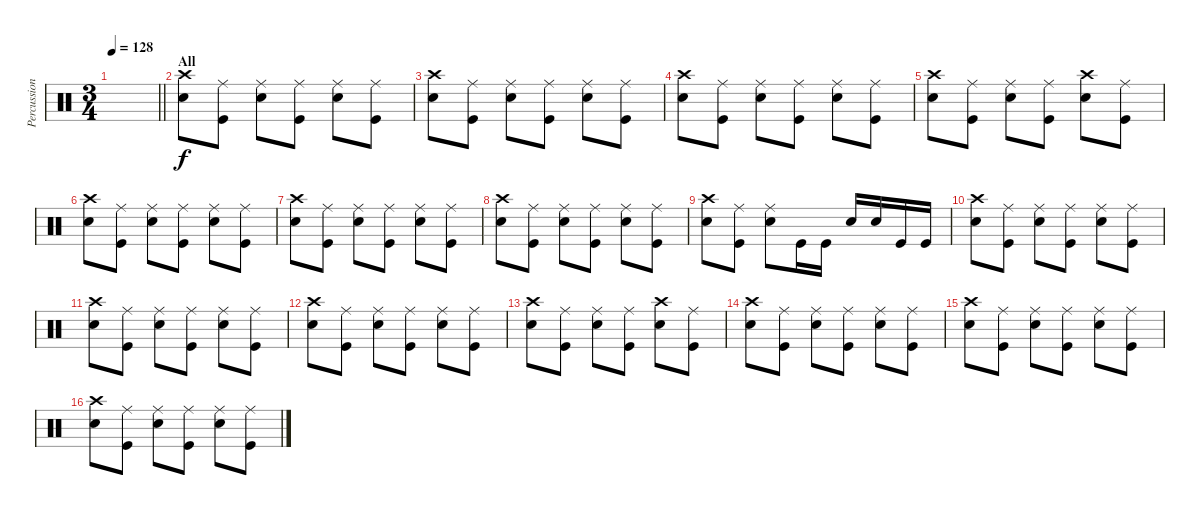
\track ("Percussioni" "Percussion") {instrument percussion}
\staff {score}
\articulation defaults
\ts (3 4)
\tempo 128
\clef neutral
\barLineRight lightlight
\ks c
|
\section ("" "All")
("Crash high (hit)" "Snare (hit) 2").8 ("Ride (middle)" "Kick (hit)").8 ("Ride (middle)" "Snare (hit) 2").8 ("Kick (hit)" "Ride (middle)").8 ("Ride (middle)" "Snare (hit) 2").8 ("Kick (hit)" "Ride (middle)").8 |
("Crash high (hit)" "Snare (hit) 2").8 ("Ride (middle)" "Kick (hit)").8 ("Ride (middle)" "Snare (hit) 2").8 ("Kick (hit)" "Ride (middle)").8 ("Ride (middle)" "Snare (hit) 2").8 ("Kick (hit)" "Ride (middle)").8 |
("Crash high (hit)" "Snare (hit) 2").8 ("Ride (middle)" "Kick (hit)").8 ("Ride (middle)" "Snare (hit) 2").8 ("Kick (hit)" "Ride (middle)").8 ("Ride (middle)" "Snare (hit) 2").8 ("Kick (hit)" "Ride (middle)").8 |
("Crash high (hit)" "Snare (hit) 2").8 ("Ride (middle)" "Kick (hit)").8 ("Ride (middle)" "Snare (hit) 2").8 ("Kick (hit)" "Ride (middle)").8 ("Crash high (hit)" "Snare (hit) 2").8 ("Kick (hit)" "Ride (middle)").8 |
("Crash high (hit)" "Snare (hit) 2").8 ("Ride (middle)" "Kick (hit)").8 ("Ride (middle)" "Snare (hit) 2").8 ("Kick (hit)" "Ride (middle)").8 ("Ride (middle)" "Snare (hit) 2").8 ("Kick (hit)" "Ride (middle)").8 |
("Crash high (hit)" "Snare (hit) 2").8 ("Ride (middle)" "Kick (hit)").8 ("Ride (middle)" "Snare (hit) 2").8 ("Kick (hit)" "Ride (middle)").8 ("Ride (middle)" "Snare (hit) 2").8 ("Kick (hit)" "Ride (middle)").8 |
("Crash high (hit)" "Snare (hit) 2").8 ("Ride (middle)" "Kick (hit)").8 ("Ride (middle)" "Snare (hit) 2").8 ("Kick (hit)" "Ride (middle)").8 ("Ride (middle)" "Snare (hit) 2").8 ("Kick (hit)" "Ride (middle)").8 |
("Crash high (hit)" "Snare (hit) 2").8 ("Ride (middle)" "Kick (hit)").8 ("Ride (middle)" "Snare (hit) 2").8 "Kick (hit)".16 "Kick (hit)".16 "Snare (hit) 2".16 "Snare (hit) 2".16 "Kick (hit)".16 "Kick (hit)".16 |
("Crash high (hit)" "Snare (hit) 2").8 ("Ride (middle)" "Kick (hit)").8 ("Ride (middle)" "Snare (hit) 2").8 ("Kick (hit)" "Ride (middle)").8 ("Ride (middle)" "Snare (hit) 2").8 ("Kick (hit)" "Ride (middle)").8 |
("Crash high (hit)" "Snare (hit) 2").8 ("Ride (middle)" "Kick (hit)").8 ("Ride (middle)" "Snare (hit) 2").8 ("Kick (hit)" "Ride (middle)").8 ("Ride (middle)" "Snare (hit) 2").8 ("Kick (hit)" "Ride (middle)").8 |
("Crash high (hit)" "Snare (hit) 2").8 ("Ride (middle)" "Kick (hit)").8 ("Ride (middle)" "Snare (hit) 2").8 ("Kick (hit)" "Ride (middle)").8 ("Ride (middle)" "Snare (hit) 2").8 ("Kick (hit)" "Ride (middle)").8 |
("Crash high (hit)" "Snare (hit) 2").8 ("Ride (middle)" "Kick (hit)").8 ("Ride (middle)" "Snare (hit) 2").8 ("Kick (hit)" "Ride (middle)").8 ("Crash high (hit)" "Snare (hit) 2").8 ("Kick (hit)" "Ride (middle)").8 |
("Crash high (hit)" "Snare (hit) 2").8 ("Ride (middle)" "Kick (hit)").8 ("Ride (middle)" "Snare (hit) 2").8 ("Kick (hit)" "Ride (middle)").8 ("Ride (middle)" "Snare (hit) 2").8 ("Kick (hit)" "Ride (middle)").8 |
("Crash high (hit)" "Snare (hit) 2").8 ("Ride (middle)" "Kick (hit)").8 ("Ride (middle)" "Snare (hit) 2").8 ("Kick (hit)" "Ride (middle)").8 ("Ride (middle)" "Snare (hit) 2").8 ("Kick (hit)" "Ride (middle)").8 |
("Crash high (hit)" "Snare (hit) 2").8 ("Ride (middle)" "Kick (hit)").8 ("Ride (middle)" "Snare (hit) 2").8 ("Kick (hit)" "Ride (middle)").8 ("Ride (middle)" "Snare (hit) 2").8 ("Kick (hit)" "Ride (middle)").8
